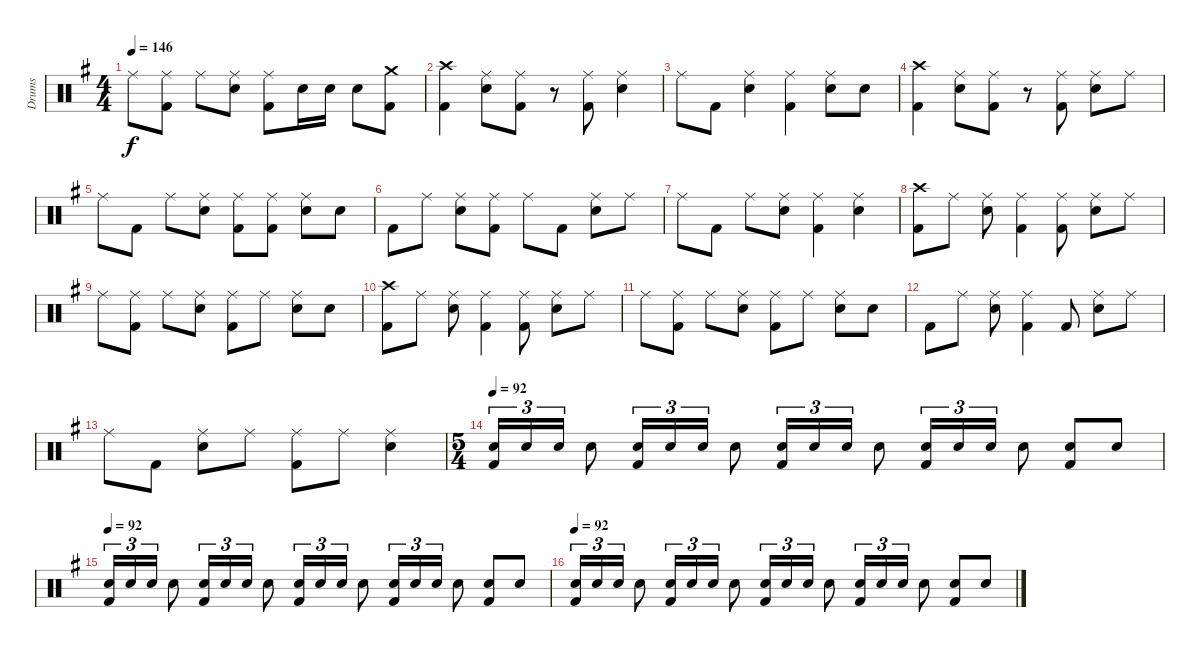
\track ("Drums" "Drums") {instrument percussion}
\staff {score}
\articulation defaults
\ts (4 4)
\tempo 146
\clef neutral
\ks g "Ride (middle)".8{dy f}
("Kick (hit) 2" "Ride (middle)").8 "Ride (middle)".8 ("Snare (hit) 2" "Ride (middle)").8 ("Kick (hit) 2" "Ride (middle)").8 "Snare (hit) 2".16 "Snare (hit) 2".16 "Snare (hit) 2".8 ("Kick (hit) 2" "Crash medium (hit)").8 |
("Kick (hit) 2" "Crash high (hit)").4 ("Snare (hit) 2" "Ride (middle)").8 ("Kick (hit) 2" "Ride (middle)").8 r.8 ("Kick (hit) 2" "Ride (middle)").8 ("Snare (hit) 2" "Ride (middle)").4 |
"Ride (middle)".8 "Kick (hit) 2".8 ("Snare (hit) 2" "Ride (middle)").4 ("Kick (hit) 2" "Ride (middle)").4 ("Snare (hit) 2" "Ride (middle)").8 "Snare (hit) 2".8 |
("Kick (hit) 2" "Crash high (hit)").4 ("Snare (hit) 2" "Ride (middle)").8 ("Kick (hit) 2" "Ride (middle)").8 r.8 ("Kick (hit) 2" "Ride (middle)").8 ("Snare (hit) 2" "Ride (middle)").8 "Ride (middle)".8 |
"Ride (middle)".8 "Kick (hit) 2".8 "Ride (middle)".8 ("Snare (hit) 2" "Ride (middle)").8 ("Kick (hit) 2" "Ride (middle)").8 ("Kick (hit) 2" "Ride (middle)").8 ("Snare (hit) 2" "Ride (middle)").8 "Snare (hit) 2".8 |
"Kick (hit) 2".8 "Ride (middle)".8 ("Snare (hit) 2" "Ride (middle)").8 ("Kick (hit) 2" "Ride (middle)").8 "Ride (middle)".8 "Kick (hit) 2".8 ("Snare (hit) 2" "Ride (middle)").8 "Ride (middle)".8 |
"Ride (middle)".8 "Kick (hit) 2".8 "Ride (middle)".8 ("Snare (hit) 2" "Ride (middle)").8 ("Kick (hit) 2" "Ride (middle)").4 ("Snare (hit) 2" "Ride (middle)").4 |
("Kick (hit) 2" "Crash high (hit)").8 "Ride (middle)".8 ("Snare (hit) 2" "Ride (middle)").8 ("Kick (hit) 2" "Ride (middle)").4 ("Kick (hit) 2" "Ride (middle)").8 ("Snare (hit) 2" "Ride (middle)").8 "Ride (middle)".8 |
"Ride (middle)".8 ("Kick (hit) 2" "Ride (middle)").8 "Ride (middle)".8 ("Snare (hit) 2" "Ride (middle)").8 ("Kick (hit) 2" "Ride (middle)").8 "Ride (middle)".8 ("Snare (hit) 2" "Ride (middle)").8 "Snare (hit) 2".8 |
("Kick (hit) 2" "Crash high (hit)").8 "Ride (middle)".8 ("Snare (hit) 2" "Ride (middle)").8 ("Kick (hit) 2" "Ride (middle)").4 ("Kick (hit) 2" "Ride (middle)").8 ("Snare (hit) 2" "Ride (middle)").8 "Ride (middle)".8 |
"Ride (middle)".8 ("Kick (hit) 2" "Ride (middle)").8 "Ride (middle)".8 ("Snare (hit) 2" "Ride (middle)").8 ("Kick (hit) 2" "Ride (middle)").8 "Ride (middle)".8 ("Snare (hit) 2" "Ride (middle)").8 "Snare (hit) 2".8 |
"Kick (hit) 2".8 "Ride (middle)".8 ("Snare (hit) 2" "Ride (middle)").8 ("Kick (hit) 2" "Ride (middle)").4 "Kick (hit) 2".8 ("Snare (hit) 2" "Ride (middle)").8 "Ride (middle)".8 |
"Ride (middle)".8 "Kick (hit) 2".8 ("Snare (hit) 2" "Ride (middle)").8 "Ride (middle)".8 ("Kick (hit) 2" "Ride (middle)").8 "Ride (middle)".8 ("Snare (hit) 2" "Ride (middle)").4 |
\ts (5 4)
\tempo 92
("Kick (hit) 2" "Snare (hit) 2").16{tu (3 2)} "Snare (hit) 2".16{tu (3 2)} "Snare (hit) 2".16{tu (3 2)} "Snare (hit) 2".8 ("Kick (hit) 2" "Snare (hit) 2").16{tu (3 2)} "Snare (hit) 2".16{tu (3 2)} "Snare (hit) 2".16{tu (3 2)} "Snare (hit) 2".8 ("Kick (hit) 2" "Snare (hit) 2").16{tu (3 2)} "Snare (hit) 2".16{tu (3 2)} "Snare (hit) 2".16{tu (3 2)} "Snare (hit) 2".8 ("Kick (hit) 2" "Snare (hit) 2").16{tu (3 2)} "Snare (hit) 2".16{tu (3 2)} "Snare (hit) 2".16{tu (3 2)} "Snare (hit) 2".8 ("Kick (hit) 2" "Snare (hit) 2").8 "Snare (hit) 2".8 |
\tempo 92
("Kick (hit) 2" "Snare (hit) 2").16{tu (3 2)} "Snare (hit) 2".16{tu (3 2)} "Snare (hit) 2".16{tu (3 2)} "Snare (hit) 2".8 ("Kick (hit) 2" "Snare (hit) 2").16{tu (3 2)} "Snare (hit) 2".16{tu (3 2)} "Snare (hit) 2".16{tu (3 2)} "Snare (hit) 2".8 ("Kick (hit) 2" "Snare (hit) 2").16{tu (3 2)} "Snare (hit) 2".16{tu (3 2)} "Snare (hit) 2".16{tu (3 2)} "Snare (hit) 2".8 ("Kick (hit) 2" "Snare (hit) 2").16{tu (3 2)} "Snare (hit) 2".16{tu (3 2)} "Snare (hit) 2".16{tu (3 2)} "Snare (hit) 2".8 ("Kick (hit) 2" "Snare (hit) 2").8 "Snare (hit) 2".8 |
\tempo 92
("Kick (hit) 2" "Snare (hit) 2").16{tu (3 2)} "Snare (hit) 2".16{tu (3 2)} "Snare (hit) 2".16{tu (3 2)} "Snare (hit) 2".8 ("Kick (hit) 2" "Snare (hit) 2").16{tu (3 2)} "Snare (hit) 2".16{tu (3 2)} "Snare (hit) 2".16{tu (3 2)} "Snare (hit) 2".8 ("Kick (hit) 2" "Snare (hit) 2").16{tu (3 2)} "Snare (hit) 2".16{tu (3 2)} "Snare (hit) 2".16{tu (3 2)} "Snare (hit) 2".8 ("Kick (hit) 2" "Snare (hit) 2").16{tu (3 2)} "Snare (hit) 2".16{tu (3 2)} "Snare (hit) 2".16{tu (3 2)} "Snare (hit) 2".8 ("Kick (hit) 2" "Snare (hit) 2").8 "Snare (hit) 2".8
